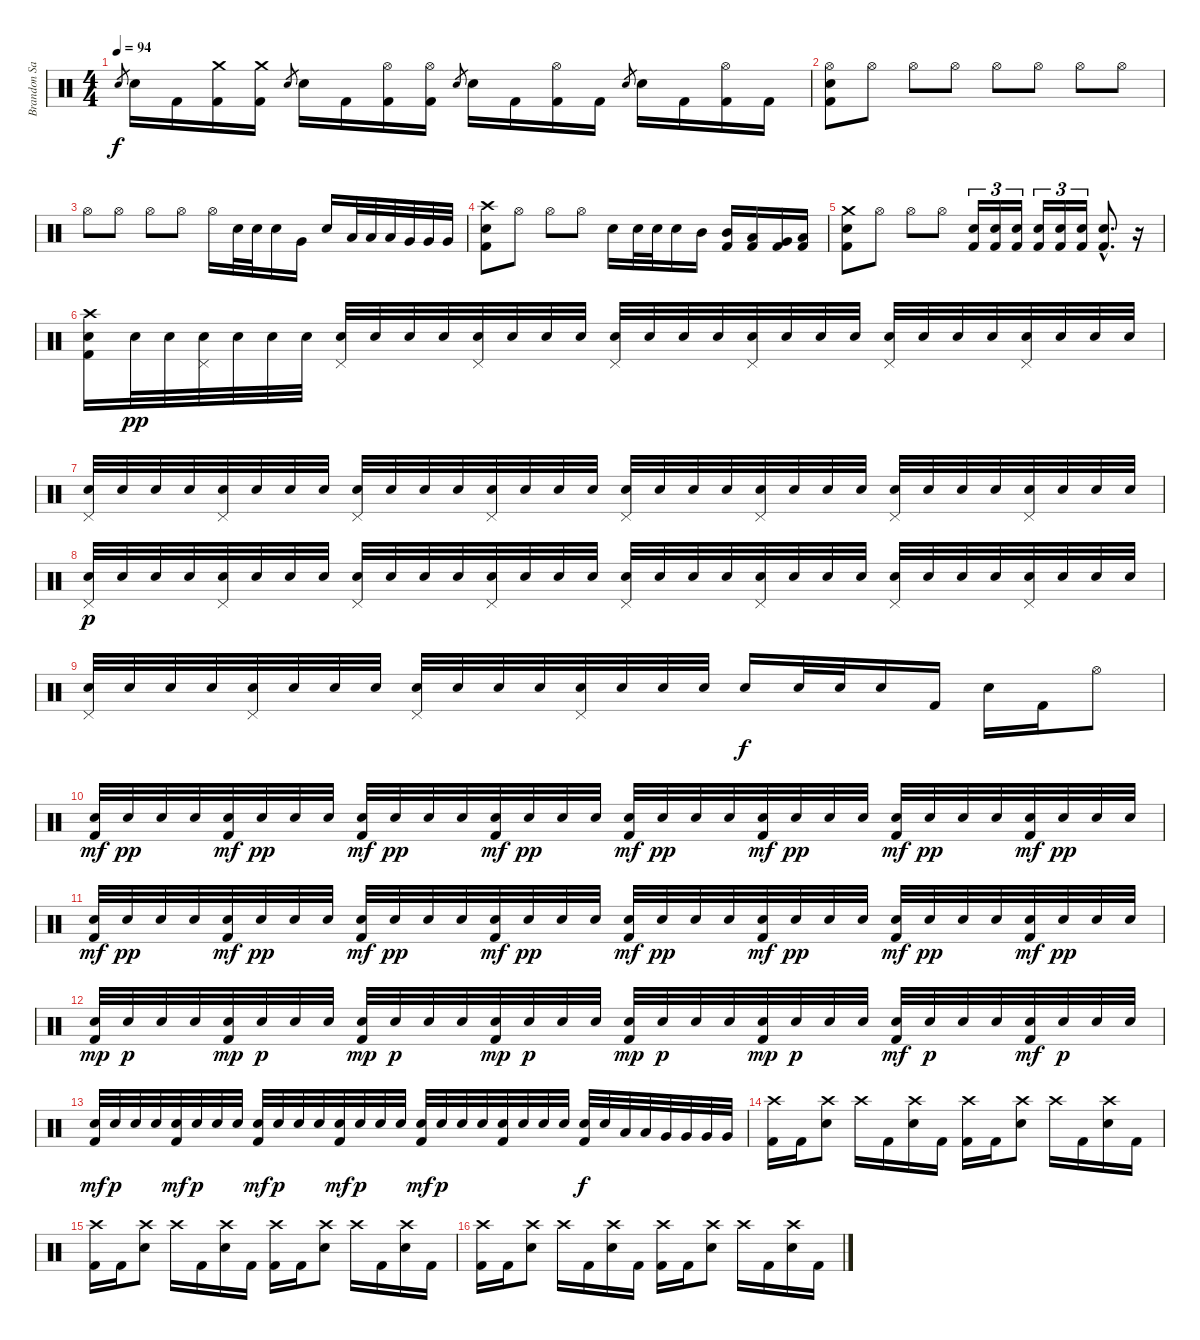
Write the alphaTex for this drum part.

\track ("Brandon Saller  (drums)" "Brandon Sa") {instrument percussion}
\staff {score}
\articulation defaults
\ts (4 4)
\tempo 94
\clef neutral
\ks c "Electric Snare (hit)".8{gr dy f} "Electric Snare (hit)".16 "Kick (hit) 2".16
("Crash medium (hit)" "Kick (hit) 2").16 ("Crash medium (hit)" "Kick (hit) 2").16 "Electric Snare (hit)".8{gr} "Electric Snare (hit)".16 "Kick (hit) 2".16 ("Hi-Hat (open)" "Kick (hit) 2").16 ("Hi-Hat (open)" "Kick (hit) 2").16 "Electric Snare (hit)".8{gr} "Electric Snare (hit)".16 "Kick (hit) 2".16 ("Hi-Hat (open)" "Kick (hit) 2").16 "Kick (hit) 2".16 "Electric Snare (hit)".8{gr} "Electric Snare (hit)".16 "Kick (hit) 2".16 ("Hi-Hat (open)" "Kick (hit) 2").16 "Kick (hit) 2".16 |
("Hi-Hat (open)" "Electric Snare (hit)" "Kick (hit) 2").8 "Hi-Hat (open)".8 "Hi-Hat (open)".8 "Hi-Hat (open)".8 "Hi-Hat (open)".8 "Hi-Hat (open)".8 "Hi-Hat (open)".8 "Hi-Hat (open)".8 |
"Hi-Hat (open)".8 "Hi-Hat (open)".8 "Hi-Hat (open)".8 "Hi-Hat (open)".8 "Hi-Hat (open)".16 "Electric Snare (hit)".32 "Electric Snare (hit)".32 "Electric Snare (hit)".16 "Very Low Tom (hit)".16 "Electric Snare (hit)".16 "Low Tom (hit)".32 "Low Tom (hit)".32 "Low Tom (hit)".32 "Very Low Tom (hit)".32 "Very Low Tom (hit)".32 "Very Low Tom (hit)".32 |
("Crash high (hit)" "Electric Snare (hit)" "Kick (hit) 2").8 "Hi-Hat (open)".8 "Hi-Hat (open)".8 "Hi-Hat (open)".8 "Electric Snare (hit)".16 "Electric Snare (hit)".32 "Electric Snare (hit)".32 "Electric Snare (hit)".16 "Mid Tom (hit)".16 ("Mid Tom (hit)" "Kick (hit) 2").16 ("Low Tom (hit)" "Kick (hit) 2").16 ("Very Low Tom (hit)" "Kick (hit) 2").16 ("Low Floor Tom (hit)" "Kick (hit) 2").16 |
("Crash medium (hit)" "Electric Snare (hit)" "Kick (hit) 2").8 "Hi-Hat (open)".8 "Hi-Hat (open)".8 "Hi-Hat (open)".8 ("Electric Snare (hit)" "Kick (hit) 2").16{tu (3 2)} ("Electric Snare (hit)" "Kick (hit) 2").16{tu (3 2)} ("Electric Snare (hit)" "Kick (hit) 2").16{tu (3 2)} ("Electric Snare (hit)" "Kick (hit) 2").16{tu (3 2)} ("Electric Snare (hit)" "Kick (hit) 2").16{tu (3 2)} ("Electric Snare (hit)" "Kick (hit) 2").16{tu (3 2)} ("Electric Snare (hit)"{hac} "Kick (hit) 2"{hac}).8{d} r.16 |
("Crash high (hit)" "Electric Snare (hit)" "Kick (hit) 2").16 "Electric Snare (hit)".32{dy pp} "Electric Snare (hit)".32 ("Pedal Hi-Hat (hit)" "Electric Snare (hit)").32 "Electric Snare (hit)".32 "Electric Snare (hit)".32 "Electric Snare (hit)".32 ("Pedal Hi-Hat (hit)" "Electric Snare (hit)").32 "Electric Snare (hit)".32 "Electric Snare (hit)".32 "Electric Snare (hit)".32 ("Pedal Hi-Hat (hit)" "Electric Snare (hit)").32 "Electric Snare (hit)".32 "Electric Snare (hit)".32 "Electric Snare (hit)".32 ("Pedal Hi-Hat (hit)" "Electric Snare (hit)").32 "Electric Snare (hit)".32 "Electric Snare (hit)".32 "Electric Snare (hit)".32 ("Pedal Hi-Hat (hit)" "Electric Snare (hit)").32 "Electric Snare (hit)".32 "Electric Snare (hit)".32 "Electric Snare (hit)".32 ("Pedal Hi-Hat (hit)" "Electric Snare (hit)").32 "Electric Snare (hit)".32 "Electric Snare (hit)".32 "Electric Snare (hit)".32 ("Pedal Hi-Hat (hit)" "Electric Snare (hit)").32 "Electric Snare (hit)".32 "Electric Snare (hit)".32 "Electric Snare (hit)".32 |
("Pedal Hi-Hat (hit)" "Electric Snare (hit)").32 "Electric Snare (hit)".32 "Electric Snare (hit)".32 "Electric Snare (hit)".32 ("Pedal Hi-Hat (hit)" "Electric Snare (hit)").32 "Electric Snare (hit)".32 "Electric Snare (hit)".32 "Electric Snare (hit)".32 ("Pedal Hi-Hat (hit)" "Electric Snare (hit)").32 "Electric Snare (hit)".32 "Electric Snare (hit)".32 "Electric Snare (hit)".32 ("Pedal Hi-Hat (hit)" "Electric Snare (hit)").32 "Electric Snare (hit)".32 "Electric Snare (hit)".32 "Electric Snare (hit)".32 ("Pedal Hi-Hat (hit)" "Electric Snare (hit)").32 "Electric Snare (hit)".32 "Electric Snare (hit)".32 "Electric Snare (hit)".32 ("Pedal Hi-Hat (hit)" "Electric Snare (hit)").32 "Electric Snare (hit)".32 "Electric Snare (hit)".32 "Electric Snare (hit)".32 ("Pedal Hi-Hat (hit)" "Electric Snare (hit)").32 "Electric Snare (hit)".32 "Electric Snare (hit)".32 "Electric Snare (hit)".32 ("Pedal Hi-Hat (hit)" "Electric Snare (hit)").32 "Electric Snare (hit)".32 "Electric Snare (hit)".32 "Electric Snare (hit)".32 |
("Pedal Hi-Hat (hit)" "Electric Snare (hit)").32{dy p} "Electric Snare (hit)".32 "Electric Snare (hit)".32 "Electric Snare (hit)".32 ("Pedal Hi-Hat (hit)" "Electric Snare (hit)").32 "Electric Snare (hit)".32 "Electric Snare (hit)".32 "Electric Snare (hit)".32 ("Pedal Hi-Hat (hit)" "Electric Snare (hit)").32 "Electric Snare (hit)".32 "Electric Snare (hit)".32 "Electric Snare (hit)".32 ("Pedal Hi-Hat (hit)" "Electric Snare (hit)").32 "Electric Snare (hit)".32 "Electric Snare (hit)".32 "Electric Snare (hit)".32 ("Pedal Hi-Hat (hit)" "Electric Snare (hit)").32 "Electric Snare (hit)".32 "Electric Snare (hit)".32 "Electric Snare (hit)".32 ("Pedal Hi-Hat (hit)" "Electric Snare (hit)").32 "Electric Snare (hit)".32 "Electric Snare (hit)".32 "Electric Snare (hit)".32 ("Pedal Hi-Hat (hit)" "Electric Snare (hit)").32 "Electric Snare (hit)".32 "Electric Snare (hit)".32 "Electric Snare (hit)".32 ("Pedal Hi-Hat (hit)" "Electric Snare (hit)").32 "Electric Snare (hit)".32 "Electric Snare (hit)".32 "Electric Snare (hit)".32 |
("Pedal Hi-Hat (hit)" "Electric Snare (hit)").32 "Electric Snare (hit)".32 "Electric Snare (hit)".32 "Electric Snare (hit)".32 ("Pedal Hi-Hat (hit)" "Electric Snare (hit)").32 "Electric Snare (hit)".32 "Electric Snare (hit)".32 "Electric Snare (hit)".32 ("Pedal Hi-Hat (hit)" "Electric Snare (hit)").32 "Electric Snare (hit)".32 "Electric Snare (hit)".32 "Electric Snare (hit)".32 ("Pedal Hi-Hat (hit)" "Electric Snare (hit)").32 "Electric Snare (hit)".32 "Electric Snare (hit)".32 "Electric Snare (hit)".32 "Electric Snare (hit)".16{dy f} "Electric Snare (hit)".32 "Electric Snare (hit)".32 "Electric Snare (hit)".16 "Kick (hit) 2".16 "Electric Snare (hit)".16 "Kick (hit) 2".16 "Hi-Hat (open)".8 |
("Electric Snare (hit)" "Kick (hit) 2").32{dy mf} "Electric Snare (hit)".32{dy pp} "Electric Snare (hit)".32 "Electric Snare (hit)".32 ("Electric Snare (hit)" "Kick (hit) 2").32{dy mf} "Electric Snare (hit)".32{dy pp} "Electric Snare (hit)".32 "Electric Snare (hit)".32 ("Electric Snare (hit)" "Kick (hit) 2").32{dy mf} "Electric Snare (hit)".32{dy pp} "Electric Snare (hit)".32 "Electric Snare (hit)".32 ("Electric Snare (hit)" "Kick (hit) 2").32{dy mf} "Electric Snare (hit)".32{dy pp} "Electric Snare (hit)".32 "Electric Snare (hit)".32 ("Electric Snare (hit)" "Kick (hit) 2").32{dy mf} "Electric Snare (hit)".32{dy pp} "Electric Snare (hit)".32 "Electric Snare (hit)".32 ("Electric Snare (hit)" "Kick (hit) 2").32{dy mf} "Electric Snare (hit)".32{dy pp} "Electric Snare (hit)".32 "Electric Snare (hit)".32 ("Electric Snare (hit)" "Kick (hit) 2").32{dy mf} "Electric Snare (hit)".32{dy pp} "Electric Snare (hit)".32 "Electric Snare (hit)".32 ("Electric Snare (hit)" "Kick (hit) 2").32{dy mf} "Electric Snare (hit)".32{dy pp} "Electric Snare (hit)".32 "Electric Snare (hit)".32 |
("Electric Snare (hit)" "Kick (hit) 2").32{dy mf} "Electric Snare (hit)".32{dy pp} "Electric Snare (hit)".32 "Electric Snare (hit)".32 ("Electric Snare (hit)" "Kick (hit) 2").32{dy mf} "Electric Snare (hit)".32{dy pp} "Electric Snare (hit)".32 "Electric Snare (hit)".32 ("Electric Snare (hit)" "Kick (hit) 2").32{dy mf} "Electric Snare (hit)".32{dy pp} "Electric Snare (hit)".32 "Electric Snare (hit)".32 ("Electric Snare (hit)" "Kick (hit) 2").32{dy mf} "Electric Snare (hit)".32{dy pp} "Electric Snare (hit)".32 "Electric Snare (hit)".32 ("Electric Snare (hit)" "Kick (hit) 2").32{dy mf} "Electric Snare (hit)".32{dy pp} "Electric Snare (hit)".32 "Electric Snare (hit)".32 ("Electric Snare (hit)" "Kick (hit) 2").32{dy mf} "Electric Snare (hit)".32{dy pp} "Electric Snare (hit)".32 "Electric Snare (hit)".32 ("Electric Snare (hit)" "Kick (hit) 2").32{dy mf} "Electric Snare (hit)".32{dy pp} "Electric Snare (hit)".32 "Electric Snare (hit)".32 ("Electric Snare (hit)" "Kick (hit) 2").32{dy mf} "Electric Snare (hit)".32{dy pp} "Electric Snare (hit)".32 "Electric Snare (hit)".32 |
("Electric Snare (hit)" "Kick (hit) 2").32{dy mp} "Electric Snare (hit)".32{dy p} "Electric Snare (hit)".32 "Electric Snare (hit)".32 ("Electric Snare (hit)" "Kick (hit) 2").32{dy mp} "Electric Snare (hit)".32{dy p} "Electric Snare (hit)".32 "Electric Snare (hit)".32 ("Electric Snare (hit)" "Kick (hit) 2").32{dy mp} "Electric Snare (hit)".32{dy p} "Electric Snare (hit)".32 "Electric Snare (hit)".32 ("Electric Snare (hit)" "Kick (hit) 2").32{dy mp} "Electric Snare (hit)".32{dy p} "Electric Snare (hit)".32 "Electric Snare (hit)".32 ("Electric Snare (hit)" "Kick (hit) 2").32{dy mp} "Electric Snare (hit)".32{dy p} "Electric Snare (hit)".32 "Electric Snare (hit)".32 ("Electric Snare (hit)" "Kick (hit) 2").32{dy mp} "Electric Snare (hit)".32{dy p} "Electric Snare (hit)".32 "Electric Snare (hit)".32 ("Electric Snare (hit)" "Kick (hit) 2").32{dy mf} "Electric Snare (hit)".32{dy p} "Electric Snare (hit)".32 "Electric Snare (hit)".32 ("Electric Snare (hit)" "Kick (hit) 2").32{dy mf} "Electric Snare (hit)".32{dy p} "Electric Snare (hit)".32 "Electric Snare (hit)".32 |
("Electric Snare (hit)" "Kick (hit) 2").32{dy mf} "Electric Snare (hit)".32{dy p} "Electric Snare (hit)".32 "Electric Snare (hit)".32 ("Electric Snare (hit)" "Kick (hit) 2").32{dy mf} "Electric Snare (hit)".32{dy p} "Electric Snare (hit)".32 "Electric Snare (hit)".32 ("Electric Snare (hit)" "Kick (hit) 2").32{dy mf} "Electric Snare (hit)".32{dy p} "Electric Snare (hit)".32 "Electric Snare (hit)".32 ("Electric Snare (hit)" "Kick (hit) 2").32{dy mf} "Electric Snare (hit)".32{dy p} "Electric Snare (hit)".32 "Electric Snare (hit)".32 ("Electric Snare (hit)" "Kick (hit) 2").32{dy mf} "Electric Snare (hit)".32{dy p} "Electric Snare (hit)".32 "Electric Snare (hit)".32 ("Electric Snare (hit)" "Kick (hit) 2").32 "Electric Snare (hit)".32 "Electric Snare (hit)".32 "Electric Snare (hit)".32 ("Electric Snare (hit)" "Kick (hit) 2").32{dy f} "Electric Snare (hit)".32 "Low Tom (hit)".32 "Low Tom (hit)".32 "Very Low Tom (hit)".32 "Very Low Tom (hit)".32 "Very Low Tom (hit)".32 "Very Low Tom (hit)".32 |
("Crash high (hit)" "Kick (hit) 2").16 "Kick (hit) 2".16 ("Crash high (hit)" "Electric Snare (hit)").8 "Crash high (hit)".16 "Kick (hit) 2".16 ("Crash high (hit)" "Electric Snare (hit)").16 "Kick (hit) 2".16 ("Crash high (hit)" "Kick (hit) 2").16 "Kick (hit) 2".16 ("Crash high (hit)" "Electric Snare (hit)").8 "Crash high (hit)".16 "Kick (hit) 2".16 ("Crash high (hit)" "Electric Snare (hit)").16 "Kick (hit) 2".16 |
("Crash high (hit)" "Kick (hit) 2").16 "Kick (hit) 2".16 ("Crash high (hit)" "Electric Snare (hit)").8 "Crash high (hit)".16 "Kick (hit) 2".16 ("Crash high (hit)" "Electric Snare (hit)").16 "Kick (hit) 2".16 ("Crash high (hit)" "Kick (hit) 2").16 "Kick (hit) 2".16 ("Crash high (hit)" "Electric Snare (hit)").8 "Crash high (hit)".16 "Kick (hit) 2".16 ("Crash high (hit)" "Electric Snare (hit)").16 "Kick (hit) 2".16 |
("Crash high (hit)" "Kick (hit) 2").16 "Kick (hit) 2".16 ("Crash high (hit)" "Electric Snare (hit)").8 "Crash high (hit)".16 "Kick (hit) 2".16 ("Crash high (hit)" "Electric Snare (hit)").16 "Kick (hit) 2".16 ("Crash high (hit)" "Kick (hit) 2").16 "Kick (hit) 2".16 ("Crash high (hit)" "Electric Snare (hit)").8 "Crash high (hit)".16 "Kick (hit) 2".16 ("Crash high (hit)" "Electric Snare (hit)").16 "Kick (hit) 2".16
